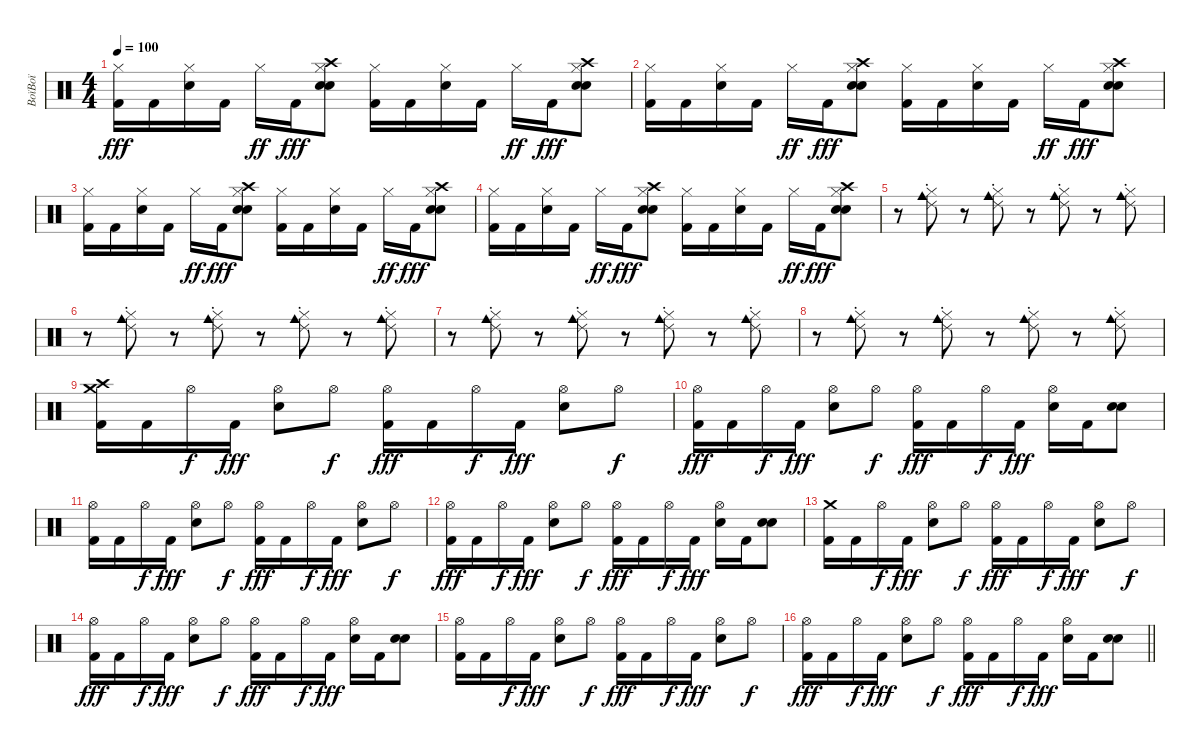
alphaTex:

\track ("BoïBoï" "BoïBoï") {instrument percussion}
\staff {score}
\articulation defaults
\ts (4 4)
\tempo 100
\clef neutral
\ks c
("Hi-Hat (closed)" "Kick (hit) 2").16{dy fff} "Kick (hit) 2".16 ("Hi-Hat (closed)" "Electric Snare (hit)").16 "Kick (hit) 2".16 "Hi-Hat (closed)".16{dy ff} "Kick (hit) 2".16{dy fff} ("Hi-Hat (closed)" "Crash high (hit)" "Electric Snare (hit)" "Snare (hit) 2").8 ("Hi-Hat (closed)" "Kick (hit) 2").16 "Kick (hit) 2".16 ("Hi-Hat (closed)" "Electric Snare (hit)").16 "Kick (hit) 2".16 "Hi-Hat (closed)".16{dy ff} "Kick (hit) 2".16{dy fff} ("Hi-Hat (closed)" "Crash high (hit)" "Electric Snare (hit)" "Snare (hit) 2").8 |
("Hi-Hat (closed)" "Kick (hit) 2").16 "Kick (hit) 2".16 ("Hi-Hat (closed)" "Electric Snare (hit)").16 "Kick (hit) 2".16 "Hi-Hat (closed)".16{dy ff} "Kick (hit) 2".16{dy fff} ("Hi-Hat (closed)" "Crash high (hit)" "Electric Snare (hit)" "Snare (hit) 2").8 ("Hi-Hat (closed)" "Kick (hit) 2").16 "Kick (hit) 2".16 ("Hi-Hat (closed)" "Electric Snare (hit)").16 "Kick (hit) 2".16 "Hi-Hat (closed)".16{dy ff} "Kick (hit) 2".16{dy fff} ("Hi-Hat (closed)" "Crash high (hit)" "Electric Snare (hit)" "Snare (hit) 2").8 |
("Hi-Hat (closed)" "Kick (hit) 2").16 "Kick (hit) 2".16 ("Hi-Hat (closed)" "Electric Snare (hit)").16 "Kick (hit) 2".16 "Hi-Hat (closed)".16{dy ff} "Kick (hit) 2".16{dy fff} ("Hi-Hat (closed)" "Crash high (hit)" "Electric Snare (hit)" "Snare (hit) 2").8 ("Hi-Hat (closed)" "Kick (hit) 2").16 "Kick (hit) 2".16 ("Hi-Hat (closed)" "Electric Snare (hit)").16 "Kick (hit) 2".16 "Hi-Hat (closed)".16{dy ff} "Kick (hit) 2".16{dy fff} ("Hi-Hat (closed)" "Crash high (hit)" "Electric Snare (hit)" "Snare (hit) 2").8 |
("Hi-Hat (closed)" "Kick (hit) 2").16 "Kick (hit) 2".16 ("Hi-Hat (closed)" "Electric Snare (hit)").16 "Kick (hit) 2".16 "Hi-Hat (closed)".16{dy ff} "Kick (hit) 2".16{dy fff} ("Hi-Hat (closed)" "Crash high (hit)" "Electric Snare (hit)" "Snare (hit) 2").8 ("Hi-Hat (closed)" "Kick (hit) 2").16 "Kick (hit) 2".16 ("Hi-Hat (closed)" "Electric Snare (hit)").16 "Kick (hit) 2".16 "Hi-Hat (closed)".16{dy ff} "Kick (hit) 2".16{dy fff} ("Hi-Hat (closed)" "Crash high (hit)" "Electric Snare (hit)" "Snare (hit) 2").8 |
r.8 ("Hi-Hat (closed)" "Cowbell medium (hit)" "Ride (choke) 2").8 r.8 ("Hi-Hat (closed)" "Cowbell medium (hit)" "Ride (choke) 2").8 r.8 ("Hi-Hat (closed)" "Cowbell medium (hit)" "Ride (choke) 2").8 r.8 ("Hi-Hat (closed)" "Cowbell medium (hit)" "Ride (choke) 2").8 |
r.8 ("Hi-Hat (closed)" "Cowbell medium (hit)" "Ride (choke) 2").8 r.8 ("Hi-Hat (closed)" "Cowbell medium (hit)" "Ride (choke) 2").8 r.8 ("Hi-Hat (closed)" "Cowbell medium (hit)" "Ride (choke) 2").8 r.8 ("Hi-Hat (closed)" "Cowbell medium (hit)" "Ride (choke) 2").8 |
r.8 ("Hi-Hat (closed)" "Cowbell medium (hit)" "Ride (choke) 2").8 r.8 ("Hi-Hat (closed)" "Cowbell medium (hit)" "Ride (choke) 2").8 r.8 ("Hi-Hat (closed)" "Cowbell medium (hit)" "Ride (choke) 2").8 r.8 ("Hi-Hat (closed)" "Cowbell medium (hit)" "Ride (choke) 2").8 |
r.8 ("Hi-Hat (closed)" "Cowbell medium (hit)" "Ride (choke) 2").8 r.8 ("Hi-Hat (closed)" "Cowbell medium (hit)" "Ride (choke) 2").8 r.8 ("Hi-Hat (closed)" "Cowbell medium (hit)" "Ride (choke) 2").8 r.8 ("Hi-Hat (closed)" "Cowbell medium (hit)" "Ride (choke) 2").8 |
("Crash medium (hit)" "Crash high (hit)" "Kick (hit) 2").16 "Kick (hit) 2".16 "Hi-Hat (open)".16{dy f} "Kick (hit) 2".16{dy fff} ("Hi-Hat (open)" "Electric Snare (hit)").8 "Hi-Hat (open)".8{dy f} ("Hi-Hat (open)" "Kick (hit) 2").16{dy fff} "Kick (hit) 2".16 "Hi-Hat (open)".16{dy f} "Kick (hit) 2".16{dy fff} ("Hi-Hat (open)" "Electric Snare (hit)").8 "Hi-Hat (open)".8{dy f} |
("Hi-Hat (open)" "Kick (hit) 2").16{dy fff} "Kick (hit) 2".16 "Hi-Hat (open)".16{dy f} "Kick (hit) 2".16{dy fff} ("Hi-Hat (open)" "Electric Snare (hit)").8 "Hi-Hat (open)".8{dy f} ("Hi-Hat (open)" "Kick (hit) 2").16{dy fff} "Kick (hit) 2".16 "Hi-Hat (open)".16{dy f} "Kick (hit) 2".16{dy fff} ("Hi-Hat (open)" "Electric Snare (hit)").16 "Kick (hit) 2".16 ("Electric Snare (hit)" "Snare (hit) 2").8 |
("Hi-Hat (open)" "Kick (hit) 2").16 "Kick (hit) 2".16 "Hi-Hat (open)".16{dy f} "Kick (hit) 2".16{dy fff} ("Hi-Hat (open)" "Electric Snare (hit)").8 "Hi-Hat (open)".8{dy f} ("Hi-Hat (open)" "Kick (hit) 2").16{dy fff} "Kick (hit) 2".16 "Hi-Hat (open)".16{dy f} "Kick (hit) 2".16{dy fff} ("Hi-Hat (open)" "Electric Snare (hit)").8 "Hi-Hat (open)".8{dy f} |
("Hi-Hat (open)" "Kick (hit) 2").16{dy fff} "Kick (hit) 2".16 "Hi-Hat (open)".16{dy f} "Kick (hit) 2".16{dy fff} ("Hi-Hat (open)" "Electric Snare (hit)").8 "Hi-Hat (open)".8{dy f} ("Hi-Hat (open)" "Kick (hit) 2").16{dy fff} "Kick (hit) 2".16 "Hi-Hat (open)".16{dy f} "Kick (hit) 2".16{dy fff} ("Hi-Hat (open)" "Electric Snare (hit)").16 "Kick (hit) 2".16 ("Electric Snare (hit)" "Snare (hit) 2").8 |
("Crash medium (hit)" "Kick (hit) 2").16 "Kick (hit) 2".16 "Hi-Hat (open)".16{dy f} "Kick (hit) 2".16{dy fff} ("Hi-Hat (open)" "Electric Snare (hit)").8 "Hi-Hat (open)".8{dy f} ("Hi-Hat (open)" "Kick (hit) 2").16{dy fff} "Kick (hit) 2".16 "Hi-Hat (open)".16{dy f} "Kick (hit) 2".16{dy fff} ("Hi-Hat (open)" "Electric Snare (hit)").8 "Hi-Hat (open)".8{dy f} |
("Hi-Hat (open)" "Kick (hit) 2").16{dy fff} "Kick (hit) 2".16 "Hi-Hat (open)".16{dy f} "Kick (hit) 2".16{dy fff} ("Hi-Hat (open)" "Electric Snare (hit)").8 "Hi-Hat (open)".8{dy f} ("Hi-Hat (open)" "Kick (hit) 2").16{dy fff} "Kick (hit) 2".16 "Hi-Hat (open)".16{dy f} "Kick (hit) 2".16{dy fff} ("Hi-Hat (open)" "Electric Snare (hit)").16 "Kick (hit) 2".16 ("Electric Snare (hit)" "Snare (hit) 2").8 |
("Hi-Hat (open)" "Kick (hit) 2").16 "Kick (hit) 2".16 "Hi-Hat (open)".16{dy f} "Kick (hit) 2".16{dy fff} ("Hi-Hat (open)" "Electric Snare (hit)").8 "Hi-Hat (open)".8{dy f} ("Hi-Hat (open)" "Kick (hit) 2").16{dy fff} "Kick (hit) 2".16 "Hi-Hat (open)".16{dy f} "Kick (hit) 2".16{dy fff} ("Hi-Hat (open)" "Electric Snare (hit)").8 "Hi-Hat (open)".8{dy f} |
\barLineRight lightlight
("Hi-Hat (open)" "Kick (hit) 2").16{dy fff} "Kick (hit) 2".16 "Hi-Hat (open)".16{dy f} "Kick (hit) 2".16{dy fff} ("Hi-Hat (open)" "Electric Snare (hit)").8 "Hi-Hat (open)".8{dy f} ("Hi-Hat (open)" "Kick (hit) 2").16{dy fff} "Kick (hit) 2".16 "Hi-Hat (open)".16{dy f} "Kick (hit) 2".16{dy fff} ("Hi-Hat (open)" "Electric Snare (hit)").16 "Kick (hit) 2".16 ("Electric Snare (hit)" "Snare (hit) 2").8
